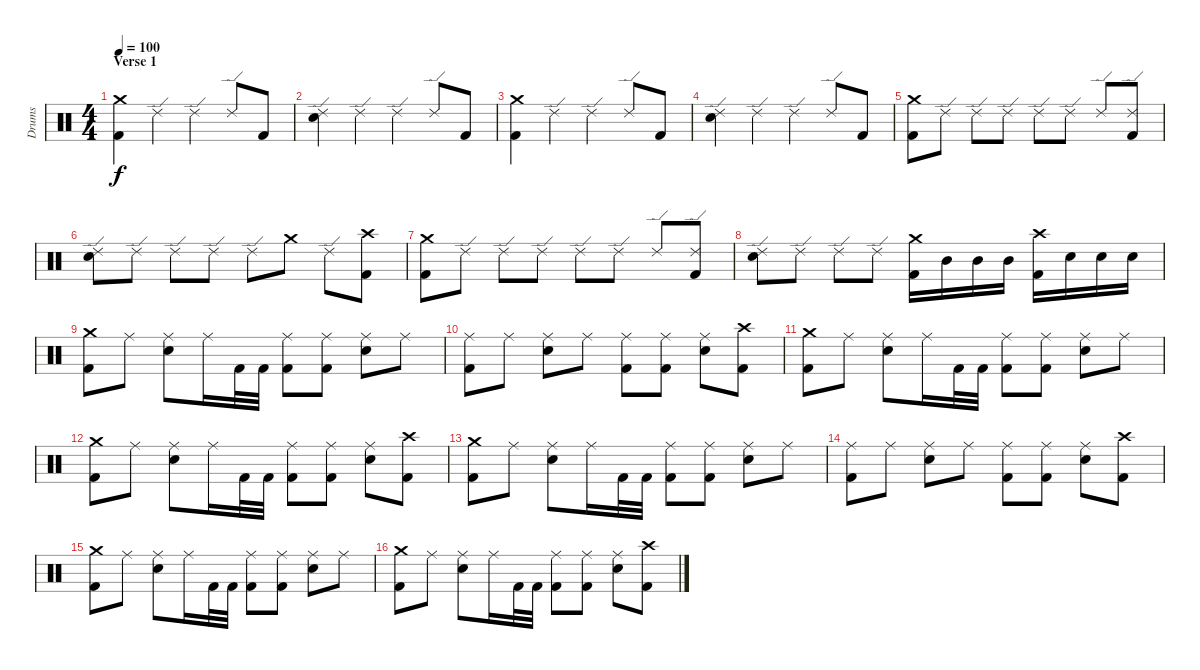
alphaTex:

\track ("Drums" "Drums") {instrument percussion}
\staff {score}
\articulation defaults
\ts (4 4)
\section ("" "Verse 1")
\tempo 100
\clef neutral
\ks c
("Kick (hit) 2" "Crash medium (hit)").4{dy f} "Ride (edge) 2".4 "Ride (edge) 2".4 "Ride (edge) 2".8 "Kick (hit) 2".8 |
("Snare (hit) 2" "Ride (edge) 2").4 "Ride (edge) 2".4 "Ride (edge) 2".4 "Ride (edge) 2".8 "Kick (hit) 2".8 |
("Kick (hit) 2" "Crash medium (hit)").4 "Ride (edge) 2".4 "Ride (edge) 2".4 "Ride (edge) 2".8 "Kick (hit) 2".8 |
("Snare (hit) 2" "Ride (edge) 2").4 "Ride (edge) 2".4 "Ride (edge) 2".4 "Ride (edge) 2".8 "Kick (hit) 2".8 |
("Kick (hit) 2" "Crash medium (hit)").8 "Ride (edge) 2".8 "Ride (edge) 2".8 "Ride (edge) 2".8 "Ride (edge) 2".8 "Ride (edge) 2".8 "Ride (edge) 2".8 ("Kick (hit) 2" "Ride (edge) 2").8 |
("Snare (hit) 2" "Ride (edge) 2").8 "Ride (edge) 2".8 "Ride (edge) 2".8 "Ride (edge) 2".8 "Ride (edge) 2".8 "Crash medium (hit)".8 "Ride (edge) 2".8 ("Kick (hit) 2" "Crash high (hit)").8 |
("Kick (hit) 2" "Crash medium (hit)").8 "Ride (edge) 2".8 "Ride (edge) 2".8 "Ride (edge) 2".8 "Ride (edge) 2".8 "Ride (edge) 2".8 "Ride (edge) 2".8 ("Kick (hit) 2" "Ride (edge) 2").8 |
("Snare (hit) 2" "Ride (edge) 2").8 "Ride (edge) 2".8 "Ride (edge) 2".8 "Ride (edge) 2".8 ("Kick (hit) 2" "Crash medium (hit)").16 "Mid Tom (hit)".16 "Mid Tom (hit)".16 "Mid Tom (hit)".16 ("Kick (hit) 2" "Crash high (hit)").16 "Snare (hit) 2".16 "Snare (hit) 2".16 "Snare (hit) 2".16 |
("Kick (hit) 2" "Crash medium (hit)").8 "Ride (middle)".8 ("Snare (hit) 2" "Ride (middle)").8 "Ride (middle)".16 "Kick (hit) 2".32 "Kick (hit) 2".32 ("Kick (hit) 2" "Ride (middle)").8 ("Kick (hit) 2" "Ride (middle)").8 ("Snare (hit) 2" "Ride (middle)").8 "Ride (middle)".8 |
("Kick (hit) 2" "Ride (middle)").8 "Ride (middle)".8 ("Snare (hit) 2" "Ride (middle)").8 "Ride (middle)".8 ("Kick (hit) 2" "Ride (middle)").8 ("Kick (hit) 2" "Ride (middle)").8 ("Snare (hit) 2" "Ride (middle)").8 ("Kick (hit) 2" "Crash high (hit)").8 |
("Kick (hit) 2" "Crash medium (hit)").8 "Ride (middle)".8 ("Snare (hit) 2" "Ride (middle)").8 "Ride (middle)".16 "Kick (hit) 2".32 "Kick (hit) 2".32 ("Kick (hit) 2" "Ride (middle)").8 ("Kick (hit) 2" "Ride (middle)").8 ("Snare (hit) 2" "Ride (middle)").8 "Ride (middle)".8 |
("Kick (hit) 2" "Crash medium (hit)").8 "Ride (middle)".8 ("Snare (hit) 2" "Ride (middle)").8 "Ride (middle)".16 "Kick (hit) 2".32 "Kick (hit) 2".32 ("Kick (hit) 2" "Ride (middle)").8 ("Kick (hit) 2" "Ride (middle)").8 ("Snare (hit) 2" "Ride (middle)").8 ("Kick (hit) 2" "Crash high (hit)").8 |
("Kick (hit) 2" "Crash medium (hit)").8 "Ride (middle)".8 ("Snare (hit) 2" "Ride (middle)").8 "Ride (middle)".16 "Kick (hit) 2".32 "Kick (hit) 2".32 ("Kick (hit) 2" "Ride (middle)").8 ("Kick (hit) 2" "Ride (middle)").8 ("Snare (hit) 2" "Ride (middle)").8 "Ride (middle)".8 |
("Kick (hit) 2" "Ride (middle)").8 "Ride (middle)".8 ("Snare (hit) 2" "Ride (middle)").8 "Ride (middle)".8 ("Kick (hit) 2" "Ride (middle)").8 ("Kick (hit) 2" "Ride (middle)").8 ("Snare (hit) 2" "Ride (middle)").8 ("Kick (hit) 2" "Crash high (hit)").8 |
("Kick (hit) 2" "Crash medium (hit)").8 "Ride (middle)".8 ("Snare (hit) 2" "Ride (middle)").8 "Ride (middle)".16 "Kick (hit) 2".32 "Kick (hit) 2".32 ("Kick (hit) 2" "Ride (middle)").8 ("Kick (hit) 2" "Ride (middle)").8 ("Snare (hit) 2" "Ride (middle)").8 "Ride (middle)".8 |
("Kick (hit) 2" "Crash medium (hit)").8 "Ride (middle)".8 ("Snare (hit) 2" "Ride (middle)").8 "Ride (middle)".16 "Kick (hit) 2".32 "Kick (hit) 2".32 ("Kick (hit) 2" "Ride (middle)").8 ("Kick (hit) 2" "Ride (middle)").8 ("Snare (hit) 2" "Ride (middle)").8 ("Kick (hit) 2" "Crash high (hit)").8
